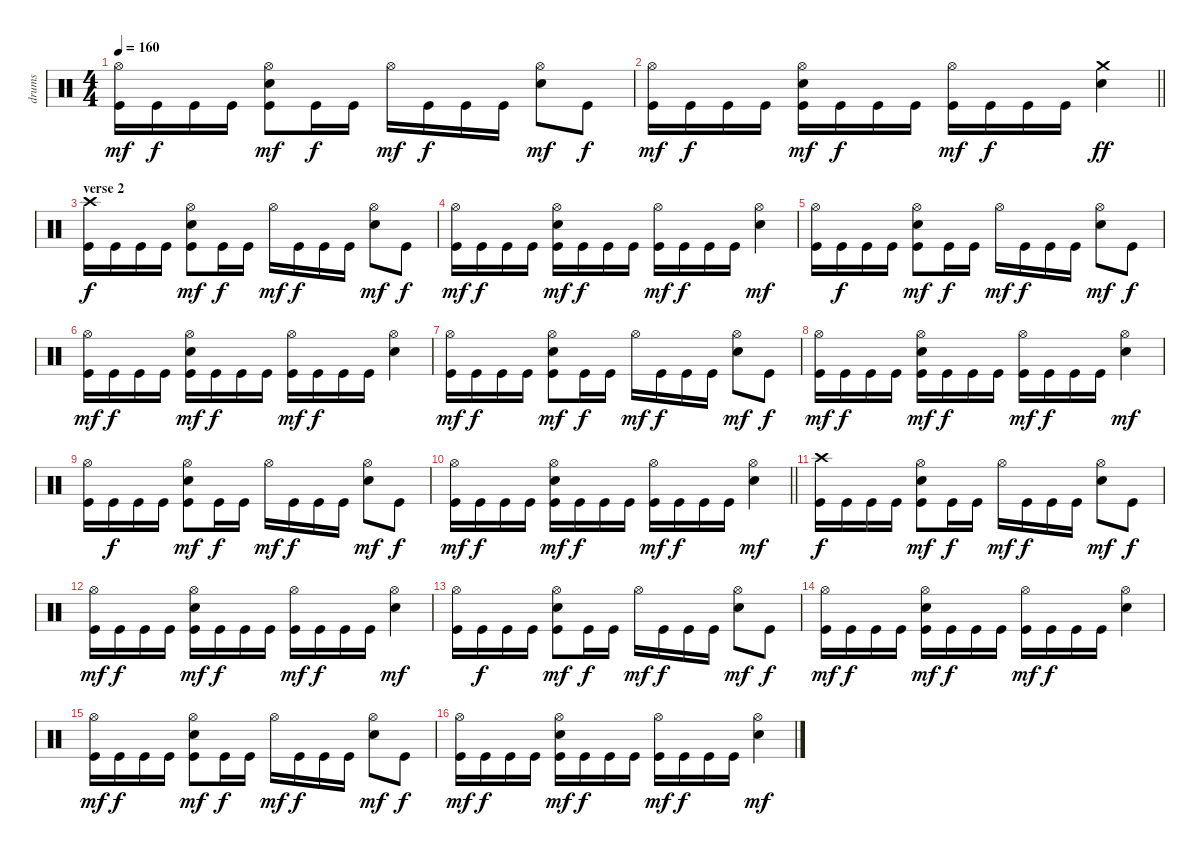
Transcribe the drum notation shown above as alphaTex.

\track ("drums" "drums") {instrument percussion}
\staff {score}
\articulation defaults
\ts (4 4)
\tempo 160
\clef neutral
\ks c
("Hi-Hat (open)" "Kick (hit)").16{dy mf} "Kick (hit)".16{dy f} "Kick (hit)".16 "Kick (hit)".16 ("Hi-Hat (open)" "Electric Snare (hit)" "Kick (hit)").8{dy mf} "Kick (hit)".16{dy f} "Kick (hit)".16 "Hi-Hat (open)".16{dy mf} "Kick (hit)".16{dy f} "Kick (hit)".16 "Kick (hit)".16 ("Hi-Hat (open)" "Electric Snare (hit)").8{dy mf} "Kick (hit)".8{dy f} |
\barLineRight lightlight
("Hi-Hat (open)" "Kick (hit)").16{dy mf} "Kick (hit)".16{dy f} "Kick (hit)".16 "Kick (hit)".16 ("Hi-Hat (open)" "Electric Snare (hit)" "Kick (hit)").16{dy mf} "Kick (hit)".16{dy f} "Kick (hit)".16 "Kick (hit)".16 ("Hi-Hat (open)" "Kick (hit)").16{dy mf} "Kick (hit)".16{dy f} "Kick (hit)".16 "Kick (hit)".16 ("Crash medium (hit)" "Electric Snare (hit)").4{dy ff} |
\section ("" "verse 2")
("Crash high (hit)" "Kick (hit)").16{dy f} "Kick (hit)".16 "Kick (hit)".16 "Kick (hit)".16 ("Hi-Hat (open)" "Electric Snare (hit)" "Kick (hit)").8{dy mf} "Kick (hit)".16{dy f} "Kick (hit)".16 "Hi-Hat (open)".16{dy mf} "Kick (hit)".16{dy f} "Kick (hit)".16 "Kick (hit)".16 ("Hi-Hat (open)" "Electric Snare (hit)").8{dy mf} "Kick (hit)".8{dy f} |
("Hi-Hat (open)" "Kick (hit)").16{dy mf} "Kick (hit)".16{dy f} "Kick (hit)".16 "Kick (hit)".16 ("Hi-Hat (open)" "Electric Snare (hit)" "Kick (hit)").16{dy mf} "Kick (hit)".16{dy f} "Kick (hit)".16 "Kick (hit)".16 ("Hi-Hat (open)" "Kick (hit)").16{dy mf} "Kick (hit)".16{dy f} "Kick (hit)".16 "Kick (hit)".16 ("Hi-Hat (open)" "Electric Snare (hit)").4{dy mf} |
("Hi-Hat (open)" "Kick (hit)").16 "Kick (hit)".16{dy f} "Kick (hit)".16 "Kick (hit)".16 ("Hi-Hat (open)" "Electric Snare (hit)" "Kick (hit)").8{dy mf} "Kick (hit)".16{dy f} "Kick (hit)".16 "Hi-Hat (open)".16{dy mf} "Kick (hit)".16{dy f} "Kick (hit)".16 "Kick (hit)".16 ("Hi-Hat (open)" "Electric Snare (hit)").8{dy mf} "Kick (hit)".8{dy f} |
("Hi-Hat (open)" "Kick (hit)").16{dy mf} "Kick (hit)".16{dy f} "Kick (hit)".16 "Kick (hit)".16 ("Hi-Hat (open)" "Electric Snare (hit)" "Kick (hit)").16{dy mf} "Kick (hit)".16{dy f} "Kick (hit)".16 "Kick (hit)".16 ("Hi-Hat (open)" "Kick (hit)").16{dy mf} "Kick (hit)".16{dy f} "Kick (hit)".16 "Kick (hit)".16 ("Hi-Hat (open)" "Electric Snare (hit)").4 |
("Hi-Hat (open)" "Kick (hit)").16{dy mf} "Kick (hit)".16{dy f} "Kick (hit)".16 "Kick (hit)".16 ("Hi-Hat (open)" "Electric Snare (hit)" "Kick (hit)").8{dy mf} "Kick (hit)".16{dy f} "Kick (hit)".16 "Hi-Hat (open)".16{dy mf} "Kick (hit)".16{dy f} "Kick (hit)".16 "Kick (hit)".16 ("Hi-Hat (open)" "Electric Snare (hit)").8{dy mf} "Kick (hit)".8{dy f} |
("Hi-Hat (open)" "Kick (hit)").16{dy mf} "Kick (hit)".16{dy f} "Kick (hit)".16 "Kick (hit)".16 ("Hi-Hat (open)" "Electric Snare (hit)" "Kick (hit)").16{dy mf} "Kick (hit)".16{dy f} "Kick (hit)".16 "Kick (hit)".16 ("Hi-Hat (open)" "Kick (hit)").16{dy mf} "Kick (hit)".16{dy f} "Kick (hit)".16 "Kick (hit)".16 ("Hi-Hat (open)" "Electric Snare (hit)").4{dy mf} |
("Hi-Hat (open)" "Kick (hit)").16 "Kick (hit)".16{dy f} "Kick (hit)".16 "Kick (hit)".16 ("Hi-Hat (open)" "Electric Snare (hit)" "Kick (hit)").8{dy mf} "Kick (hit)".16{dy f} "Kick (hit)".16 "Hi-Hat (open)".16{dy mf} "Kick (hit)".16{dy f} "Kick (hit)".16 "Kick (hit)".16 ("Hi-Hat (open)" "Electric Snare (hit)").8{dy mf} "Kick (hit)".8{dy f} |
\barLineRight lightlight
("Hi-Hat (open)" "Kick (hit)").16{dy mf} "Kick (hit)".16{dy f} "Kick (hit)".16 "Kick (hit)".16 ("Hi-Hat (open)" "Electric Snare (hit)" "Kick (hit)").16{dy mf} "Kick (hit)".16{dy f} "Kick (hit)".16 "Kick (hit)".16 ("Hi-Hat (open)" "Kick (hit)").16{dy mf} "Kick (hit)".16{dy f} "Kick (hit)".16 "Kick (hit)".16 ("Hi-Hat (open)" "Electric Snare (hit)").4{dy mf} |
("Crash high (hit)" "Kick (hit)").16{dy f} "Kick (hit)".16 "Kick (hit)".16 "Kick (hit)".16 ("Hi-Hat (open)" "Electric Snare (hit)" "Kick (hit)").8{dy mf} "Kick (hit)".16{dy f} "Kick (hit)".16 "Hi-Hat (open)".16{dy mf} "Kick (hit)".16{dy f} "Kick (hit)".16 "Kick (hit)".16 ("Hi-Hat (open)" "Electric Snare (hit)").8{dy mf} "Kick (hit)".8{dy f} |
("Hi-Hat (open)" "Kick (hit)").16{dy mf} "Kick (hit)".16{dy f} "Kick (hit)".16 "Kick (hit)".16 ("Hi-Hat (open)" "Electric Snare (hit)" "Kick (hit)").16{dy mf} "Kick (hit)".16{dy f} "Kick (hit)".16 "Kick (hit)".16 ("Hi-Hat (open)" "Kick (hit)").16{dy mf} "Kick (hit)".16{dy f} "Kick (hit)".16 "Kick (hit)".16 ("Hi-Hat (open)" "Electric Snare (hit)").4{dy mf} |
("Hi-Hat (open)" "Kick (hit)").16 "Kick (hit)".16{dy f} "Kick (hit)".16 "Kick (hit)".16 ("Hi-Hat (open)" "Electric Snare (hit)" "Kick (hit)").8{dy mf} "Kick (hit)".16{dy f} "Kick (hit)".16 "Hi-Hat (open)".16{dy mf} "Kick (hit)".16{dy f} "Kick (hit)".16 "Kick (hit)".16 ("Hi-Hat (open)" "Electric Snare (hit)").8{dy mf} "Kick (hit)".8{dy f} |
("Hi-Hat (open)" "Kick (hit)").16{dy mf} "Kick (hit)".16{dy f} "Kick (hit)".16 "Kick (hit)".16 ("Hi-Hat (open)" "Electric Snare (hit)" "Kick (hit)").16{dy mf} "Kick (hit)".16{dy f} "Kick (hit)".16 "Kick (hit)".16 ("Hi-Hat (open)" "Kick (hit)").16{dy mf} "Kick (hit)".16{dy f} "Kick (hit)".16 "Kick (hit)".16 ("Hi-Hat (open)" "Electric Snare (hit)").4 |
("Hi-Hat (open)" "Kick (hit)").16{dy mf} "Kick (hit)".16{dy f} "Kick (hit)".16 "Kick (hit)".16 ("Hi-Hat (open)" "Electric Snare (hit)" "Kick (hit)").8{dy mf} "Kick (hit)".16{dy f} "Kick (hit)".16 "Hi-Hat (open)".16{dy mf} "Kick (hit)".16{dy f} "Kick (hit)".16 "Kick (hit)".16 ("Hi-Hat (open)" "Electric Snare (hit)").8{dy mf} "Kick (hit)".8{dy f} |
("Hi-Hat (open)" "Kick (hit)").16{dy mf} "Kick (hit)".16{dy f} "Kick (hit)".16 "Kick (hit)".16 ("Hi-Hat (open)" "Electric Snare (hit)" "Kick (hit)").16{dy mf} "Kick (hit)".16{dy f} "Kick (hit)".16 "Kick (hit)".16 ("Hi-Hat (open)" "Kick (hit)").16{dy mf} "Kick (hit)".16{dy f} "Kick (hit)".16 "Kick (hit)".16 ("Hi-Hat (open)" "Electric Snare (hit)").4{dy mf}
